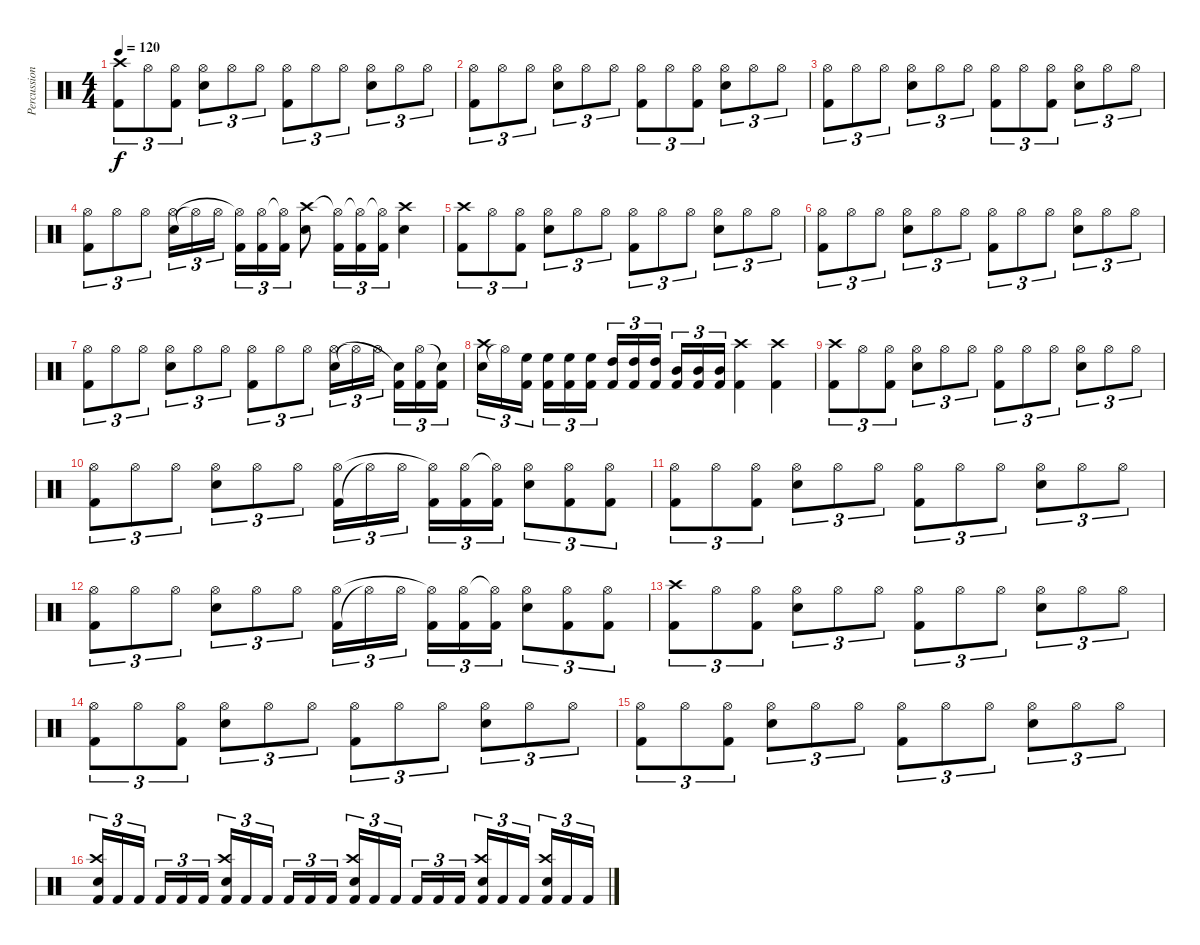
\track ("Percussions" "Percussion") {instrument percussion}
\staff {score}
\articulation defaults
\ts (4 4)
\tempo 120
\clef neutral
\ks c
("Kick (hit) 2" "Crash high (hit)").8{tu (3 2) dy f} "Hi-Hat (open)".8{tu (3 2)} ("Kick (hit) 2" "Hi-Hat (open)").8{tu (3 2)} ("Snare (hit) 2" "Hi-Hat (open)").8{tu (3 2)} "Hi-Hat (open)".8{tu (3 2)} "Hi-Hat (open)".8{tu (3 2)} ("Kick (hit) 2" "Hi-Hat (open)").8{tu (3 2)} "Hi-Hat (open)".8{tu (3 2)} "Hi-Hat (open)".8{tu (3 2)} ("Snare (hit) 2" "Hi-Hat (open)").8{tu (3 2)} "Hi-Hat (open)".8{tu (3 2)} "Hi-Hat (open)".8{tu (3 2)} |
("Kick (hit) 2" "Hi-Hat (open)").8{tu (3 2)} "Hi-Hat (open)".8{tu (3 2)} "Hi-Hat (open)".8{tu (3 2)} ("Snare (hit) 2" "Hi-Hat (open)").8{tu (3 2)} "Hi-Hat (open)".8{tu (3 2)} "Hi-Hat (open)".8{tu (3 2)} ("Kick (hit) 2" "Hi-Hat (open)").8{tu (3 2)} "Hi-Hat (open)".8{tu (3 2)} ("Kick (hit) 2" "Hi-Hat (open)").8{tu (3 2)} ("Snare (hit) 2" "Hi-Hat (open)").8{tu (3 2)} "Hi-Hat (open)".8{tu (3 2)} "Hi-Hat (open)".8{tu (3 2)} |
("Kick (hit) 2" "Hi-Hat (open)").8{tu (3 2)} "Hi-Hat (open)".8{tu (3 2)} "Hi-Hat (open)".8{tu (3 2)} ("Snare (hit) 2" "Hi-Hat (open)").8{tu (3 2)} "Hi-Hat (open)".8{tu (3 2)} "Hi-Hat (open)".8{tu (3 2)} ("Kick (hit) 2" "Hi-Hat (open)").8{tu (3 2)} "Hi-Hat (open)".8{tu (3 2)} ("Kick (hit) 2" "Hi-Hat (open)").8{tu (3 2)} ("Snare (hit) 2" "Hi-Hat (open)").8{tu (3 2)} "Hi-Hat (open)".8{tu (3 2)} "Hi-Hat (open)".8{tu (3 2)} |
("Kick (hit) 2" "Hi-Hat (open)").8{tu (3 2)} "Hi-Hat (open)".8{tu (3 2)} "Hi-Hat (open)".8{tu (3 2)} ("Snare (hit) 2" "Hi-Hat (open)").16{tu (3 2)} "Hi-Hat (open)"{t}.16{tu (3 2)} "Hi-Hat (open)".16{tu (3 2)} ("Kick (hit) 2" "Hi-Hat (open)"{t}).16{tu (3 2)} ("Kick (hit) 2" "Hi-Hat (open)").16{tu (3 2)} ("Kick (hit) 2" "Hi-Hat (open)"{t}).16{tu (3 2)} ("Snare (hit) 2" "Crash high (hit)").8 ("Kick (hit) 2" "Hi-Hat (open)"{t}).16{tu (3 2)} ("Kick (hit) 2" "Hi-Hat (open)"{t}).16{tu (3 2)} ("Kick (hit) 2" "Hi-Hat (open)"{t}).16{tu (3 2)} ("Snare (hit) 2" "Crash high (hit)").4 |
("Kick (hit) 2" "Crash high (hit)").8{tu (3 2)} "Hi-Hat (open)".8{tu (3 2)} ("Kick (hit) 2" "Hi-Hat (open)").8{tu (3 2)} ("Snare (hit) 2" "Hi-Hat (open)").8{tu (3 2)} "Hi-Hat (open)".8{tu (3 2)} "Hi-Hat (open)".8{tu (3 2)} ("Kick (hit) 2" "Hi-Hat (open)").8{tu (3 2)} "Hi-Hat (open)".8{tu (3 2)} "Hi-Hat (open)".8{tu (3 2)} ("Snare (hit) 2" "Hi-Hat (open)").8{tu (3 2)} "Hi-Hat (open)".8{tu (3 2)} "Hi-Hat (open)".8{tu (3 2)} |
("Kick (hit) 2" "Hi-Hat (open)").8{tu (3 2)} "Hi-Hat (open)".8{tu (3 2)} "Hi-Hat (open)".8{tu (3 2)} ("Snare (hit) 2" "Hi-Hat (open)").8{tu (3 2)} "Hi-Hat (open)".8{tu (3 2)} "Hi-Hat (open)".8{tu (3 2)} ("Kick (hit) 2" "Hi-Hat (open)").8{tu (3 2)} "Hi-Hat (open)".8{tu (3 2)} "Hi-Hat (open)".8{tu (3 2)} ("Snare (hit) 2" "Hi-Hat (open)").8{tu (3 2)} "Hi-Hat (open)".8{tu (3 2)} "Hi-Hat (open)".8{tu (3 2)} |
("Kick (hit) 2" "Hi-Hat (open)").8{tu (3 2)} "Hi-Hat (open)".8{tu (3 2)} "Hi-Hat (open)".8{tu (3 2)} ("Snare (hit) 2" "Hi-Hat (open)").8{tu (3 2)} "Hi-Hat (open)".8{tu (3 2)} "Hi-Hat (open)".8{tu (3 2)} ("Kick (hit) 2" "Hi-Hat (open)").8{tu (3 2)} "Hi-Hat (open)".8{tu (3 2)} "Hi-Hat (open)".8{tu (3 2)} ("Snare (hit) 2" "Hi-Hat (open)").16{tu (3 2)} "Hi-Hat (open)"{t}.16{tu (3 2)} "Hi-Hat (open)".16{tu (3 2)} ("Kick (hit) 2" "Snare (hit)"{t}).16{tu (3 2)} ("Kick (hit) 2" "Hi-Hat (open)").16{tu (3 2)} ("Kick (hit) 2" "Snare (hit)"{t}).16{tu (3 2)} |
("Snare (hit) 2" "Crash high (hit)").16{tu (3 2)} "Hi-Hat (open)"{t}.16{tu (3 2)} ("Kick (hit) 2" "High Floor Tom (hit)").16{tu (3 2)} ("Kick (hit) 2" "High Floor Tom (hit)").16{tu (3 2)} ("Kick (hit) 2" "High Floor Tom (hit)").16{tu (3 2)} ("Kick (hit) 2" "High Floor Tom (hit)").16{tu (3 2)} ("Kick (hit) 2" "High Tom (hit)").16{tu (3 2)} ("Kick (hit) 2" "High Tom (hit)").16{tu (3 2)} ("Kick (hit) 2" "High Tom (hit)").16{tu (3 2)} ("Kick (hit) 2" "Mid Tom (hit)").16{tu (3 2)} ("Kick (hit) 2" "Mid Tom (hit)").16{tu (3 2)} ("Kick (hit) 2" "Mid Tom (hit)").16{tu (3 2)} ("Kick (hit) 2" "Crash high (hit)").4 ("Kick (hit) 2" "Crash high (hit)").4 |
("Kick (hit) 2" "Crash high (hit)").8{tu (3 2)} "Hi-Hat (open)".8{tu (3 2)} ("Kick (hit) 2" "Hi-Hat (open)").8{tu (3 2)} ("Snare (hit) 2" "Hi-Hat (open)").8{tu (3 2)} "Hi-Hat (open)".8{tu (3 2)} "Hi-Hat (open)".8{tu (3 2)} ("Kick (hit) 2" "Hi-Hat (open)").8{tu (3 2)} "Hi-Hat (open)".8{tu (3 2)} "Hi-Hat (open)".8{tu (3 2)} ("Snare (hit) 2" "Hi-Hat (open)").8{tu (3 2)} "Hi-Hat (open)".8{tu (3 2)} "Hi-Hat (open)".8{tu (3 2)} |
("Kick (hit) 2" "Hi-Hat (open)").8{tu (3 2)} "Hi-Hat (open)".8{tu (3 2)} "Hi-Hat (open)".8{tu (3 2)} ("Snare (hit) 2" "Hi-Hat (open)").8{tu (3 2)} "Hi-Hat (open)".8{tu (3 2)} "Hi-Hat (open)".8{tu (3 2)} ("Kick (hit) 2" "Hi-Hat (open)").16{tu (3 2)} "Hi-Hat (open)"{t}.16{tu (3 2)} "Hi-Hat (open)".16{tu (3 2)} ("Kick (hit) 2" "Hi-Hat (open)"{t}).16{tu (3 2)} ("Kick (hit) 2" "Hi-Hat (open)").16{tu (3 2)} ("Kick (hit) 2" "Hi-Hat (open)"{t}).16{tu (3 2)} ("Snare (hit) 2" "Hi-Hat (open)").8{tu (3 2)} ("Kick (hit) 2" "Hi-Hat (open)").8{tu (3 2)} ("Kick (hit) 2" "Hi-Hat (open)").8{tu (3 2)} |
("Kick (hit) 2" "Hi-Hat (open)").8{tu (3 2)} "Hi-Hat (open)".8{tu (3 2)} ("Kick (hit) 2" "Hi-Hat (open)").8{tu (3 2)} ("Snare (hit) 2" "Hi-Hat (open)").8{tu (3 2)} "Hi-Hat (open)".8{tu (3 2)} "Hi-Hat (open)".8{tu (3 2)} ("Kick (hit) 2" "Hi-Hat (open)").8{tu (3 2)} "Hi-Hat (open)".8{tu (3 2)} "Hi-Hat (open)".8{tu (3 2)} ("Snare (hit) 2" "Hi-Hat (open)").8{tu (3 2)} "Hi-Hat (open)".8{tu (3 2)} "Hi-Hat (open)".8{tu (3 2)} |
("Kick (hit) 2" "Hi-Hat (open)").8{tu (3 2)} "Hi-Hat (open)".8{tu (3 2)} "Hi-Hat (open)".8{tu (3 2)} ("Snare (hit) 2" "Hi-Hat (open)").8{tu (3 2)} "Hi-Hat (open)".8{tu (3 2)} "Hi-Hat (open)".8{tu (3 2)} ("Kick (hit) 2" "Hi-Hat (open)").16{tu (3 2)} "Hi-Hat (open)"{t}.16{tu (3 2)} "Hi-Hat (open)".16{tu (3 2)} ("Kick (hit) 2" "Hi-Hat (open)"{t}).16{tu (3 2)} ("Kick (hit) 2" "Hi-Hat (open)").16{tu (3 2)} ("Kick (hit) 2" "Hi-Hat (open)"{t}).16{tu (3 2)} ("Snare (hit) 2" "Hi-Hat (open)").8{tu (3 2)} ("Kick (hit) 2" "Hi-Hat (open)").8{tu (3 2)} ("Kick (hit) 2" "Hi-Hat (open)").8{tu (3 2)} |
("Kick (hit) 2" "Crash high (hit)").8{tu (3 2)} "Hi-Hat (open)".8{tu (3 2)} ("Kick (hit) 2" "Hi-Hat (open)").8{tu (3 2)} ("Snare (hit) 2" "Hi-Hat (open)").8{tu (3 2)} "Hi-Hat (open)".8{tu (3 2)} "Hi-Hat (open)".8{tu (3 2)} ("Kick (hit) 2" "Hi-Hat (open)").8{tu (3 2)} "Hi-Hat (open)".8{tu (3 2)} "Hi-Hat (open)".8{tu (3 2)} ("Snare (hit) 2" "Hi-Hat (open)").8{tu (3 2)} "Hi-Hat (open)".8{tu (3 2)} "Hi-Hat (open)".8{tu (3 2)} |
("Kick (hit) 2" "Hi-Hat (open)").8{tu (3 2)} "Hi-Hat (open)".8{tu (3 2)} ("Kick (hit) 2" "Hi-Hat (open)").8{tu (3 2)} ("Snare (hit) 2" "Hi-Hat (open)").8{tu (3 2)} "Hi-Hat (open)".8{tu (3 2)} "Hi-Hat (open)".8{tu (3 2)} ("Kick (hit) 2" "Hi-Hat (open)").8{tu (3 2)} "Hi-Hat (open)".8{tu (3 2)} "Hi-Hat (open)".8{tu (3 2)} ("Snare (hit) 2" "Hi-Hat (open)").8{tu (3 2)} "Hi-Hat (open)".8{tu (3 2)} "Hi-Hat (open)".8{tu (3 2)} |
("Kick (hit) 2" "Hi-Hat (open)").8{tu (3 2)} "Hi-Hat (open)".8{tu (3 2)} ("Kick (hit) 2" "Hi-Hat (open)").8{tu (3 2)} ("Snare (hit) 2" "Hi-Hat (open)").8{tu (3 2)} "Hi-Hat (open)".8{tu (3 2)} "Hi-Hat (open)".8{tu (3 2)} ("Kick (hit) 2" "Hi-Hat (open)").8{tu (3 2)} "Hi-Hat (open)".8{tu (3 2)} "Hi-Hat (open)".8{tu (3 2)} ("Snare (hit) 2" "Hi-Hat (open)").8{tu (3 2)} "Hi-Hat (open)".8{tu (3 2)} "Hi-Hat (open)".8{tu (3 2)} |
("Kick (hit) 2" "Snare (hit) 2" "Crash high (hit)").16{tu (3 2)} "Kick (hit) 2".16{tu (3 2)} "Kick (hit) 2".16{tu (3 2)} "Kick (hit) 2".16{tu (3 2)} "Kick (hit) 2".16{tu (3 2)} "Kick (hit) 2".16{tu (3 2)} ("Kick (hit) 2" "Snare (hit) 2" "Crash high (hit)").16{tu (3 2)} "Kick (hit) 2".16{tu (3 2)} "Kick (hit) 2".16{tu (3 2)} "Kick (hit) 2".16{tu (3 2)} "Kick (hit) 2".16{tu (3 2)} "Kick (hit) 2".16{tu (3 2)} ("Kick (hit) 2" "Snare (hit) 2" "Crash high (hit)").16{tu (3 2)} "Kick (hit) 2".16{tu (3 2)} "Kick (hit) 2".16{tu (3 2)} "Kick (hit) 2".16{tu (3 2)} "Kick (hit) 2".16{tu (3 2)} "Kick (hit) 2".16{tu (3 2)} ("Kick (hit) 2" "Snare (hit) 2" "Crash high (hit)").16{tu (3 2)} "Kick (hit) 2".16{tu (3 2)} "Kick (hit) 2".16{tu (3 2)} ("Kick (hit) 2" "Snare (hit) 2" "Crash high (hit)").16{tu (3 2)} "Kick (hit) 2".16{tu (3 2)} "Kick (hit) 2".16{tu (3 2)}
